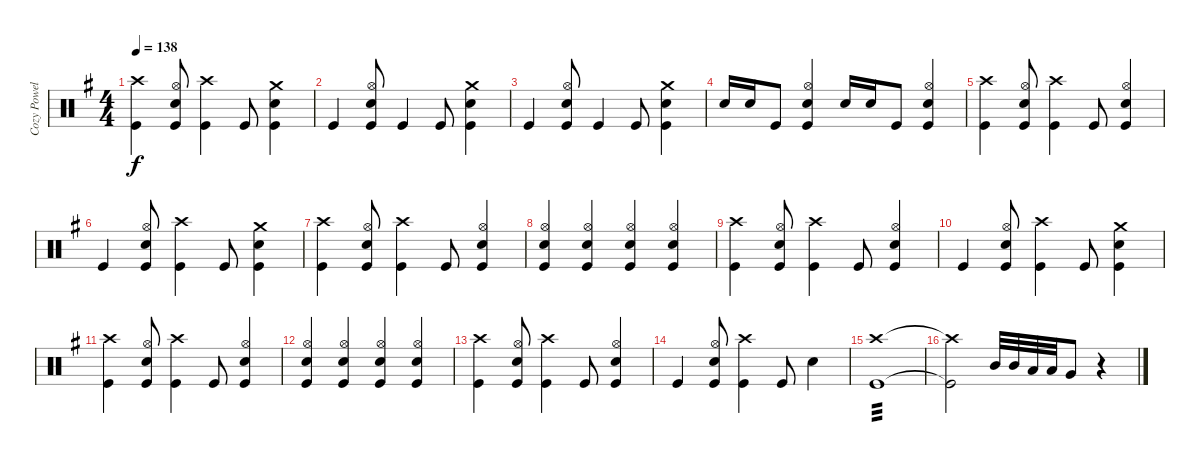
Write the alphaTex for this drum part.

\track ("Cozy Powell Drums" "Cozy Powel") {instrument percussion}
\staff {score}
\articulation defaults
\ts (4 4)
\tempo 138
\clef neutral
\ks g
("Crash high (hit)" "Kick (hit)").4{dy f} ("Hi-Hat (open)" "Snare (hit) 2" "Kick (hit)").8 ("Crash high (hit)" "Kick (hit)").4 "Kick (hit)".8 ("Crash medium (hit)" "Snare (hit) 2" "Kick (hit)").4 |
"Kick (hit)".4 ("Hi-Hat (open)" "Snare (hit) 2" "Kick (hit)").8 "Kick (hit)".4 "Kick (hit)".8 ("Crash medium (hit)" "Snare (hit) 2" "Kick (hit)").4 |
"Kick (hit)".4 ("Hi-Hat (open)" "Snare (hit) 2" "Kick (hit)").8 "Kick (hit)".4 "Kick (hit)".8 ("Crash medium (hit)" "Snare (hit) 2" "Kick (hit)").4 |
"Snare (hit) 2".16 "Snare (hit) 2".16 "Kick (hit)".8 ("Hi-Hat (open)" "Snare (hit) 2" "Kick (hit)").4 "Snare (hit) 2".16 "Snare (hit) 2".16 "Kick (hit)".8 ("Hi-Hat (open)" "Snare (hit) 2" "Kick (hit)").4 |
("Crash high (hit)" "Kick (hit)").4 ("Hi-Hat (open)" "Snare (hit) 2" "Kick (hit)").8 ("Crash high (hit)" "Kick (hit)").4 "Kick (hit)".8 ("Hi-Hat (open)" "Snare (hit) 2" "Kick (hit)").4 |
"Kick (hit)".4 ("Hi-Hat (open)" "Snare (hit) 2" "Kick (hit)").8 ("Crash high (hit)" "Kick (hit)").4 "Kick (hit)".8 ("Crash medium (hit)" "Snare (hit) 2" "Kick (hit)").4 |
("Crash high (hit)" "Kick (hit)").4 ("Hi-Hat (open)" "Snare (hit) 2" "Kick (hit)").8 ("Crash high (hit)" "Kick (hit)").4 "Kick (hit)".8 ("Hi-Hat (open)" "Snare (hit) 2" "Kick (hit)").4 |
("Hi-Hat (open)" "Snare (hit) 2" "Kick (hit)").4 ("Hi-Hat (open)" "Snare (hit) 2" "Kick (hit)").4 ("Hi-Hat (open)" "Snare (hit) 2" "Kick (hit)").4 ("Hi-Hat (open)" "Snare (hit) 2" "Kick (hit)").4 |
("Crash high (hit)" "Kick (hit)").4 ("Hi-Hat (open)" "Snare (hit) 2" "Kick (hit)").8 ("Crash high (hit)" "Kick (hit)").4 "Kick (hit)".8 ("Hi-Hat (open)" "Snare (hit) 2" "Kick (hit)").4 |
"Kick (hit)".4 ("Hi-Hat (open)" "Snare (hit) 2" "Kick (hit)").8 ("Crash high (hit)" "Kick (hit)").4 "Kick (hit)".8 ("Crash medium (hit)" "Snare (hit) 2" "Kick (hit)").4 |
("Crash high (hit)" "Kick (hit)").4 ("Hi-Hat (open)" "Snare (hit) 2" "Kick (hit)").8 ("Crash high (hit)" "Kick (hit)").4 "Kick (hit)".8 ("Hi-Hat (open)" "Snare (hit) 2" "Kick (hit)").4 |
("Hi-Hat (open)" "Snare (hit) 2" "Kick (hit)").4 ("Hi-Hat (open)" "Snare (hit) 2" "Kick (hit)").4 ("Hi-Hat (open)" "Snare (hit) 2" "Kick (hit)").4 ("Hi-Hat (open)" "Snare (hit) 2" "Kick (hit)").4 |
("Crash high (hit)" "Kick (hit)").4 ("Hi-Hat (open)" "Snare (hit) 2" "Kick (hit)").8 ("Crash high (hit)" "Kick (hit)").4 "Kick (hit)".8 ("Hi-Hat (open)" "Snare (hit) 2" "Kick (hit)").4 |
"Kick (hit)".4 ("Hi-Hat (open)" "Snare (hit) 2" "Kick (hit)").8 ("Crash high (hit)" "Kick (hit)").4 "Kick (hit)".8 "Snare (hit) 2".4 |
("Crash high (hit)" "Kick (hit)").1{tp 3} |
("Crash high (hit)"{t} "Kick (hit)"{t}).2 "Mid Tom (hit)".32 "Mid Tom (hit)".32 "Low Tom (hit)".32 "Low Tom (hit)".32 "Very Low Tom (hit)".8 r.4
